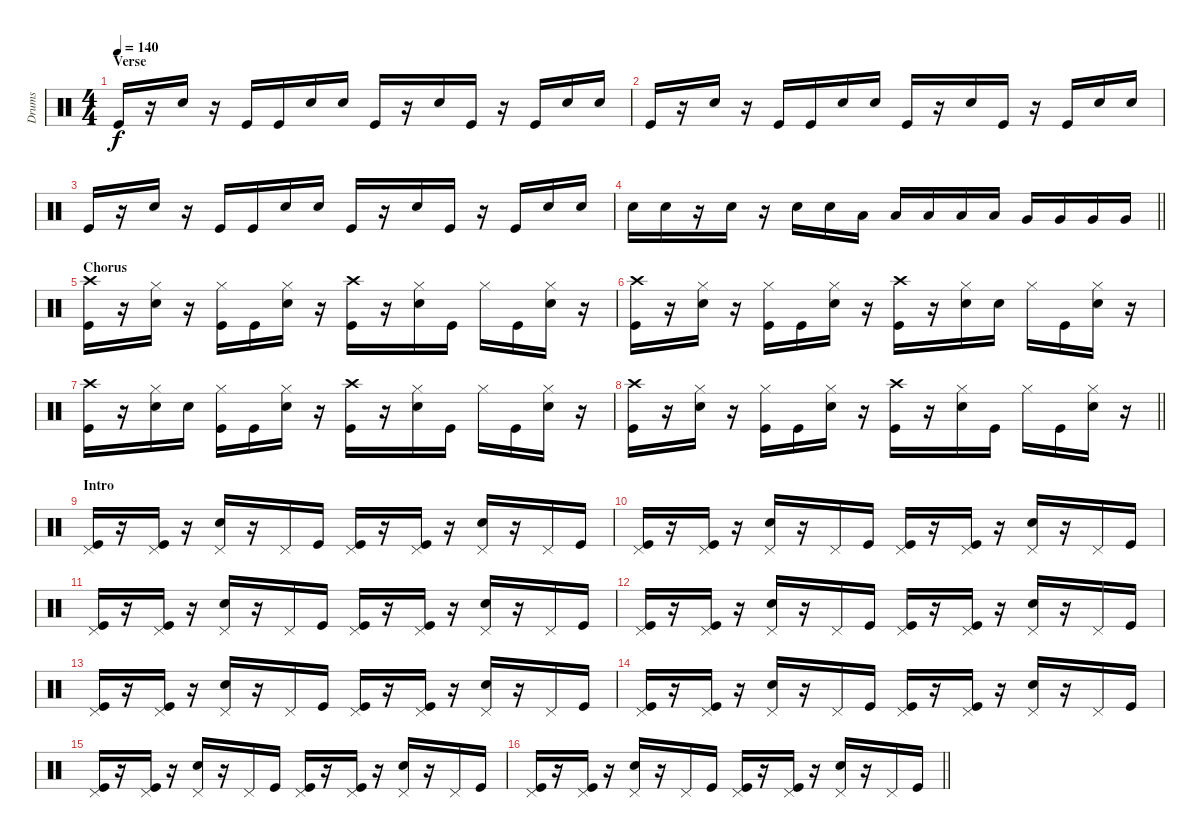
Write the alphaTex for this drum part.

\track ("Drums" "Drums") {instrument percussion}
\staff {score}
\articulation defaults
\ts (4 4)
\section ("" "Verse")
\tempo 140
\clef neutral
\ks c "Kick (hit)".16{dy f}
r.16 "Snare (hit) 2".16 r.16 "Kick (hit)".16 "Kick (hit)".16 "Snare (hit) 2".16 "Snare (hit) 2".16 "Kick (hit)".16 r.16 "Snare (hit) 2".16 "Kick (hit)".16 r.16 "Kick (hit)".16 "Snare (hit) 2".16 "Snare (hit) 2".16 |
"Kick (hit)".16 r.16 "Snare (hit) 2".16 r.16 "Kick (hit)".16 "Kick (hit)".16 "Snare (hit) 2".16 "Snare (hit) 2".16 "Kick (hit)".16 r.16 "Snare (hit) 2".16 "Kick (hit)".16 r.16 "Kick (hit)".16 "Snare (hit) 2".16 "Snare (hit) 2".16 |
"Kick (hit)".16 r.16 "Snare (hit) 2".16 r.16 "Kick (hit)".16 "Kick (hit)".16 "Snare (hit) 2".16 "Snare (hit) 2".16 "Kick (hit)".16 r.16 "Snare (hit) 2".16 "Kick (hit)".16 r.16 "Kick (hit)".16 "Snare (hit) 2".16 "Snare (hit) 2".16 |
\barLineRight lightlight "Snare (hit) 2".16 "Snare (hit) 2".16
r.16 "Snare (hit) 2".16 r.16 "Snare (hit) 2".16 "Snare (hit) 2".16 "Low Tom (hit)".16 "Low Tom (hit)".16 "Low Tom (hit)".16 "Low Tom (hit)".16 "Low Tom (hit)".16 "Very Low Tom (hit)".16 "Very Low Tom (hit)".16 "Very Low Tom (hit)".16 "Very Low Tom (hit)".16 |
\section ("" "Chorus")
("Crash high (hit)" "Kick (hit)").16 r.16 ("Hi-Hat (closed)" "Snare (hit) 2").16 r.16 ("Hi-Hat (closed)" "Kick (hit)").16 "Kick (hit)".16 ("Hi-Hat (closed)" "Snare (hit) 2").16 r.16 ("Crash high (hit)" "Kick (hit)").16 r.16 ("Hi-Hat (closed)" "Snare (hit) 2").16 "Kick (hit)".16 "Hi-Hat (closed)".16 "Kick (hit)".16 ("Hi-Hat (closed)" "Snare (hit) 2").16 r.16 |
("Crash high (hit)" "Kick (hit)").16 r.16 ("Hi-Hat (closed)" "Snare (hit) 2").16 r.16 ("Hi-Hat (closed)" "Kick (hit)").16 "Kick (hit)".16 ("Hi-Hat (closed)" "Snare (hit) 2").16 r.16 ("Crash high (hit)" "Kick (hit)").16 r.16 ("Hi-Hat (closed)" "Snare (hit) 2").16 "Snare (hit) 2".16 "Hi-Hat (closed)".16 "Kick (hit)".16 ("Hi-Hat (closed)" "Snare (hit) 2").16 r.16 |
("Crash high (hit)" "Kick (hit)").16 r.16 ("Hi-Hat (closed)" "Snare (hit) 2").16 "Snare (hit) 2".16 ("Hi-Hat (closed)" "Kick (hit)").16 "Kick (hit)".16 ("Hi-Hat (closed)" "Snare (hit) 2").16 r.16 ("Crash high (hit)" "Kick (hit)").16 r.16 ("Hi-Hat (closed)" "Snare (hit) 2").16 "Kick (hit)".16 "Hi-Hat (closed)".16 "Kick (hit)".16 ("Hi-Hat (closed)" "Snare (hit) 2").16 r.16 |
\barLineRight lightlight
("Crash high (hit)" "Kick (hit)").16 r.16 ("Hi-Hat (closed)" "Snare (hit) 2").16 r.16 ("Hi-Hat (closed)" "Kick (hit)").16 "Kick (hit)".16 ("Hi-Hat (closed)" "Snare (hit) 2").16 r.16 ("Crash high (hit)" "Kick (hit)").16 r.16 ("Hi-Hat (closed)" "Snare (hit) 2").16 "Kick (hit)".16 "Hi-Hat (closed)".16 "Kick (hit)".16 ("Hi-Hat (closed)" "Snare (hit) 2").16 r.16 |
\section ("" "Intro")
("Pedal Hi-Hat (hit)" "Kick (hit)").16 r.16 ("Pedal Hi-Hat (hit)" "Kick (hit)").16 r.16 ("Pedal Hi-Hat (hit)" "Snare (hit) 2").16 r.16 "Pedal Hi-Hat (hit)".16 "Kick (hit)".16 ("Pedal Hi-Hat (hit)" "Kick (hit)").16 r.16 ("Pedal Hi-Hat (hit)" "Kick (hit)").16 r.16 ("Pedal Hi-Hat (hit)" "Snare (hit) 2").16 r.16 "Pedal Hi-Hat (hit)".16 "Kick (hit)".16 |
("Pedal Hi-Hat (hit)" "Kick (hit)").16 r.16 ("Pedal Hi-Hat (hit)" "Kick (hit)").16 r.16 ("Pedal Hi-Hat (hit)" "Snare (hit) 2").16 r.16 "Pedal Hi-Hat (hit)".16 "Kick (hit)".16 ("Pedal Hi-Hat (hit)" "Kick (hit)").16 r.16 ("Pedal Hi-Hat (hit)" "Kick (hit)").16 r.16 ("Pedal Hi-Hat (hit)" "Snare (hit) 2").16 r.16 "Pedal Hi-Hat (hit)".16 "Kick (hit)".16 |
("Pedal Hi-Hat (hit)" "Kick (hit)").16 r.16 ("Pedal Hi-Hat (hit)" "Kick (hit)").16 r.16 ("Pedal Hi-Hat (hit)" "Snare (hit) 2").16 r.16 "Pedal Hi-Hat (hit)".16 "Kick (hit)".16 ("Pedal Hi-Hat (hit)" "Kick (hit)").16 r.16 ("Pedal Hi-Hat (hit)" "Kick (hit)").16 r.16 ("Pedal Hi-Hat (hit)" "Snare (hit) 2").16 r.16 "Pedal Hi-Hat (hit)".16 "Kick (hit)".16 |
("Pedal Hi-Hat (hit)" "Kick (hit)").16 r.16 ("Pedal Hi-Hat (hit)" "Kick (hit)").16 r.16 ("Pedal Hi-Hat (hit)" "Snare (hit) 2").16 r.16 "Pedal Hi-Hat (hit)".16 "Kick (hit)".16 ("Pedal Hi-Hat (hit)" "Kick (hit)").16 r.16 ("Pedal Hi-Hat (hit)" "Kick (hit)").16 r.16 ("Pedal Hi-Hat (hit)" "Snare (hit) 2").16 r.16 "Pedal Hi-Hat (hit)".16 "Kick (hit)".16 |
("Pedal Hi-Hat (hit)" "Kick (hit)").16 r.16 ("Pedal Hi-Hat (hit)" "Kick (hit)").16 r.16 ("Pedal Hi-Hat (hit)" "Snare (hit) 2").16 r.16 "Pedal Hi-Hat (hit)".16 "Kick (hit)".16 ("Pedal Hi-Hat (hit)" "Kick (hit)").16 r.16 ("Pedal Hi-Hat (hit)" "Kick (hit)").16 r.16 ("Pedal Hi-Hat (hit)" "Snare (hit) 2").16 r.16 "Pedal Hi-Hat (hit)".16 "Kick (hit)".16 |
("Pedal Hi-Hat (hit)" "Kick (hit)").16 r.16 ("Pedal Hi-Hat (hit)" "Kick (hit)").16 r.16 ("Pedal Hi-Hat (hit)" "Snare (hit) 2").16 r.16 "Pedal Hi-Hat (hit)".16 "Kick (hit)".16 ("Pedal Hi-Hat (hit)" "Kick (hit)").16 r.16 ("Pedal Hi-Hat (hit)" "Kick (hit)").16 r.16 ("Pedal Hi-Hat (hit)" "Snare (hit) 2").16 r.16 "Pedal Hi-Hat (hit)".16 "Kick (hit)".16 |
("Pedal Hi-Hat (hit)" "Kick (hit)").16 r.16 ("Pedal Hi-Hat (hit)" "Kick (hit)").16 r.16 ("Pedal Hi-Hat (hit)" "Snare (hit) 2").16 r.16 "Pedal Hi-Hat (hit)".16 "Kick (hit)".16 ("Pedal Hi-Hat (hit)" "Kick (hit)").16 r.16 ("Pedal Hi-Hat (hit)" "Kick (hit)").16 r.16 ("Pedal Hi-Hat (hit)" "Snare (hit) 2").16 r.16 "Pedal Hi-Hat (hit)".16 "Kick (hit)".16 |
\barLineRight lightlight
("Pedal Hi-Hat (hit)" "Kick (hit)").16 r.16 ("Pedal Hi-Hat (hit)" "Kick (hit)").16 r.16 ("Pedal Hi-Hat (hit)" "Snare (hit) 2").16 r.16 "Pedal Hi-Hat (hit)".16 "Kick (hit)".16 ("Pedal Hi-Hat (hit)" "Kick (hit)").16 r.16 ("Pedal Hi-Hat (hit)" "Kick (hit)").16 r.16 ("Pedal Hi-Hat (hit)" "Snare (hit) 2").16 r.16 "Pedal Hi-Hat (hit)".16 "Kick (hit)".16
